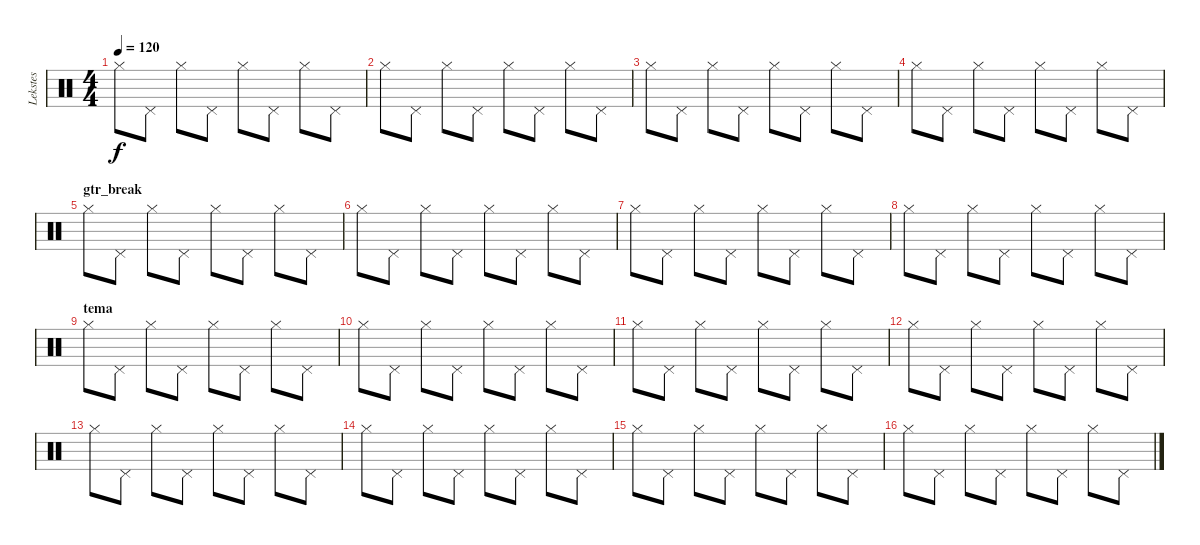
\track ("Lekstes" "Lekstes") {instrument percussion}
\staff {score}
\articulation defaults
\ts (4 4)
\tempo 120
\clef neutral
\ks c "Hi-Hat (closed)".8{dy f} "Pedal Hi-Hat (hit)".8 "Hi-Hat (closed)".8 "Pedal Hi-Hat (hit)".8 "Hi-Hat (closed)".8 "Pedal Hi-Hat (hit)".8 "Hi-Hat (closed)".8 "Pedal Hi-Hat (hit)".8
|
"Hi-Hat (closed)".8 "Pedal Hi-Hat (hit)".8 "Hi-Hat (closed)".8 "Pedal Hi-Hat (hit)".8 "Hi-Hat (closed)".8 "Pedal Hi-Hat (hit)".8 "Hi-Hat (closed)".8 "Pedal Hi-Hat (hit)".8 |
"Hi-Hat (closed)".8 "Pedal Hi-Hat (hit)".8 "Hi-Hat (closed)".8 "Pedal Hi-Hat (hit)".8 "Hi-Hat (closed)".8 "Pedal Hi-Hat (hit)".8 "Hi-Hat (closed)".8 "Pedal Hi-Hat (hit)".8 |
"Hi-Hat (closed)".8 "Pedal Hi-Hat (hit)".8 "Hi-Hat (closed)".8 "Pedal Hi-Hat (hit)".8 "Hi-Hat (closed)".8 "Pedal Hi-Hat (hit)".8 "Hi-Hat (closed)".8 "Pedal Hi-Hat (hit)".8 |
\section ("" "gtr_break")
"Hi-Hat (closed)".8 "Pedal Hi-Hat (hit)".8 "Hi-Hat (closed)".8 "Pedal Hi-Hat (hit)".8 "Hi-Hat (closed)".8 "Pedal Hi-Hat (hit)".8 "Hi-Hat (closed)".8 "Pedal Hi-Hat (hit)".8 |
"Hi-Hat (closed)".8 "Pedal Hi-Hat (hit)".8 "Hi-Hat (closed)".8 "Pedal Hi-Hat (hit)".8 "Hi-Hat (closed)".8 "Pedal Hi-Hat (hit)".8 "Hi-Hat (closed)".8 "Pedal Hi-Hat (hit)".8 |
"Hi-Hat (closed)".8 "Pedal Hi-Hat (hit)".8 "Hi-Hat (closed)".8 "Pedal Hi-Hat (hit)".8 "Hi-Hat (closed)".8 "Pedal Hi-Hat (hit)".8 "Hi-Hat (closed)".8 "Pedal Hi-Hat (hit)".8 |
"Hi-Hat (closed)".8 "Pedal Hi-Hat (hit)".8 "Hi-Hat (closed)".8 "Pedal Hi-Hat (hit)".8 "Hi-Hat (closed)".8 "Pedal Hi-Hat (hit)".8 "Hi-Hat (closed)".8 "Pedal Hi-Hat (hit)".8 |
\section ("" "tema")
"Hi-Hat (closed)".8 "Pedal Hi-Hat (hit)".8 "Hi-Hat (closed)".8 "Pedal Hi-Hat (hit)".8 "Hi-Hat (closed)".8 "Pedal Hi-Hat (hit)".8 "Hi-Hat (closed)".8 "Pedal Hi-Hat (hit)".8 |
"Hi-Hat (closed)".8 "Pedal Hi-Hat (hit)".8 "Hi-Hat (closed)".8 "Pedal Hi-Hat (hit)".8 "Hi-Hat (closed)".8 "Pedal Hi-Hat (hit)".8 "Hi-Hat (closed)".8 "Pedal Hi-Hat (hit)".8 |
"Hi-Hat (closed)".8 "Pedal Hi-Hat (hit)".8 "Hi-Hat (closed)".8 "Pedal Hi-Hat (hit)".8 "Hi-Hat (closed)".8 "Pedal Hi-Hat (hit)".8 "Hi-Hat (closed)".8 "Pedal Hi-Hat (hit)".8 |
"Hi-Hat (closed)".8 "Pedal Hi-Hat (hit)".8 "Hi-Hat (closed)".8 "Pedal Hi-Hat (hit)".8 "Hi-Hat (closed)".8 "Pedal Hi-Hat (hit)".8 "Hi-Hat (closed)".8 "Pedal Hi-Hat (hit)".8 |
"Hi-Hat (closed)".8 "Pedal Hi-Hat (hit)".8 "Hi-Hat (closed)".8 "Pedal Hi-Hat (hit)".8 "Hi-Hat (closed)".8 "Pedal Hi-Hat (hit)".8 "Hi-Hat (closed)".8 "Pedal Hi-Hat (hit)".8 |
"Hi-Hat (closed)".8 "Pedal Hi-Hat (hit)".8 "Hi-Hat (closed)".8 "Pedal Hi-Hat (hit)".8 "Hi-Hat (closed)".8 "Pedal Hi-Hat (hit)".8 "Hi-Hat (closed)".8 "Pedal Hi-Hat (hit)".8 |
"Hi-Hat (closed)".8 "Pedal Hi-Hat (hit)".8 "Hi-Hat (closed)".8 "Pedal Hi-Hat (hit)".8 "Hi-Hat (closed)".8 "Pedal Hi-Hat (hit)".8 "Hi-Hat (closed)".8 "Pedal Hi-Hat (hit)".8 |
"Hi-Hat (closed)".8 "Pedal Hi-Hat (hit)".8 "Hi-Hat (closed)".8 "Pedal Hi-Hat (hit)".8 "Hi-Hat (closed)".8 "Pedal Hi-Hat (hit)".8 "Hi-Hat (closed)".8 "Pedal Hi-Hat (hit)".8
